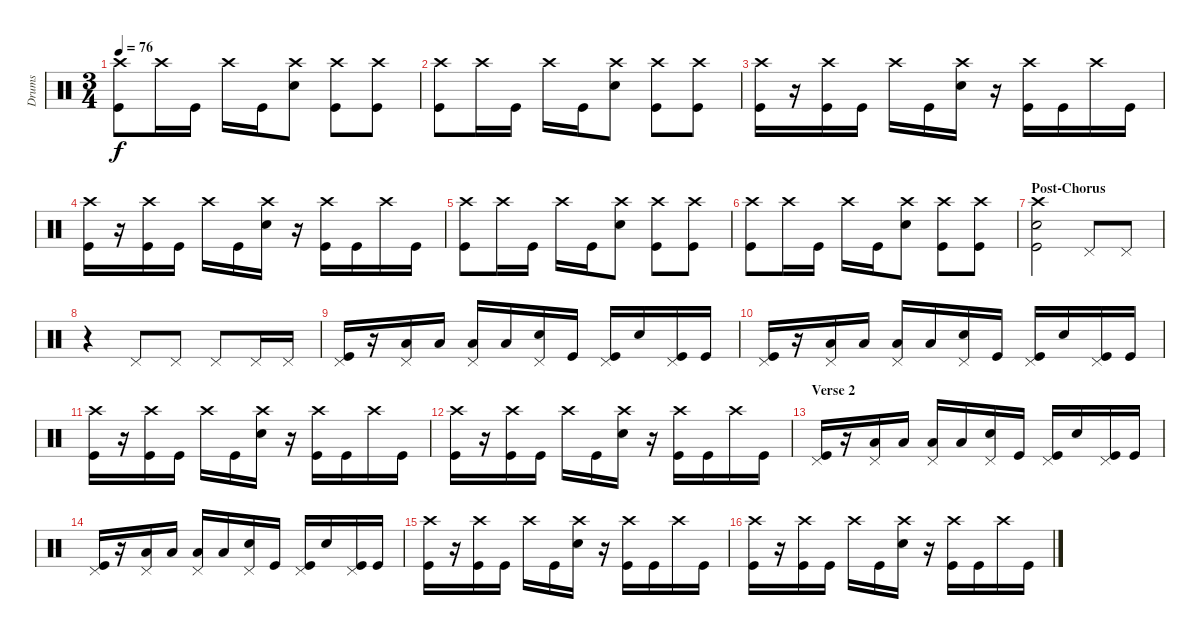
\track ("Drums" "Drums") {instrument percussion}
\staff {score}
\articulation defaults
\ts (3 4)
\tempo 76
\clef neutral
\ks c
("Crash high (hit)" "Kick (hit)").8{dy f} "Crash high (hit)".16 "Kick (hit)".16 "Crash high (hit)".16 "Kick (hit)".16 ("Crash high (hit)" "Snare (hit) 2").8 ("Crash high (hit)" "Kick (hit)").8 ("Crash high (hit)" "Kick (hit)").8 |
("Crash high (hit)" "Kick (hit)").8 "Crash high (hit)".16 "Kick (hit)".16 "Crash high (hit)".16 "Kick (hit)".16 ("Crash high (hit)" "Snare (hit) 2").8 ("Crash high (hit)" "Kick (hit)").8 ("Crash high (hit)" "Kick (hit)").8 |
("Crash high (hit)" "Kick (hit)").16 r.16 ("Crash high (hit)" "Kick (hit)").16 "Kick (hit)".16 "Crash high (hit)".16 "Kick (hit)".16 ("Crash high (hit)" "Snare (hit) 2").16 r.16 ("Crash high (hit)" "Kick (hit)").16 "Kick (hit)".16 "Crash high (hit)".16 "Kick (hit)".16 |
("Crash high (hit)" "Kick (hit)").16 r.16 ("Crash high (hit)" "Kick (hit)").16 "Kick (hit)".16 "Crash high (hit)".16 "Kick (hit)".16 ("Crash high (hit)" "Snare (hit) 2").16 r.16 ("Crash high (hit)" "Kick (hit)").16 "Kick (hit)".16 "Crash high (hit)".16 "Kick (hit)".16 |
("Crash high (hit)" "Kick (hit)").8 "Crash high (hit)".16 "Kick (hit)".16 "Crash high (hit)".16 "Kick (hit)".16 ("Crash high (hit)" "Snare (hit) 2").8 ("Crash high (hit)" "Kick (hit)").8 ("Crash high (hit)" "Kick (hit)").8 |
("Crash high (hit)" "Kick (hit)").8 "Crash high (hit)".16 "Kick (hit)".16 "Crash high (hit)".16 "Kick (hit)".16 ("Crash high (hit)" "Snare (hit) 2").8 ("Crash high (hit)" "Kick (hit)").8 ("Crash high (hit)" "Kick (hit)").8 |
\section ("" "Post-Chorus")
("Crash high (hit)" "Snare (hit) 2" "Kick (hit)").2 "Pedal Hi-Hat (hit)".8 "Pedal Hi-Hat (hit)".8 |
r.4 "Pedal Hi-Hat (hit)".8 "Pedal Hi-Hat (hit)".8 "Pedal Hi-Hat (hit)".8 "Pedal Hi-Hat (hit)".16 "Pedal Hi-Hat (hit)".16 |
("Pedal Hi-Hat (hit)" "Kick (hit)").16 r.16 ("Pedal Hi-Hat (hit)" "Low Tom (hit)").16 "Low Tom (hit)".16 ("Pedal Hi-Hat (hit)" "Low Tom (hit)").16 "Low Tom (hit)".16 ("Pedal Hi-Hat (hit)" "Snare (hit) 2").16 "Kick (hit)".16 ("Pedal Hi-Hat (hit)" "Kick (hit)").16 "Snare (hit) 2".16 ("Pedal Hi-Hat (hit)" "Kick (hit)").16 "Kick (hit)".16 |
("Pedal Hi-Hat (hit)" "Kick (hit)").16 r.16 ("Pedal Hi-Hat (hit)" "Low Tom (hit)").16 "Low Tom (hit)".16 ("Pedal Hi-Hat (hit)" "Low Tom (hit)").16 "Low Tom (hit)".16 ("Pedal Hi-Hat (hit)" "Snare (hit) 2").16 "Kick (hit)".16 ("Pedal Hi-Hat (hit)" "Kick (hit)").16 "Snare (hit) 2".16 ("Pedal Hi-Hat (hit)" "Kick (hit)").16 "Kick (hit)".16 |
("Crash high (hit)" "Kick (hit)").16 r.16 ("Crash high (hit)" "Kick (hit)").16 "Kick (hit)".16 "Crash high (hit)".16 "Kick (hit)".16 ("Crash high (hit)" "Snare (hit) 2").16 r.16 ("Crash high (hit)" "Kick (hit)").16 "Kick (hit)".16 "Crash high (hit)".16 "Kick (hit)".16 |
("Crash high (hit)" "Kick (hit)").16 r.16 ("Crash high (hit)" "Kick (hit)").16 "Kick (hit)".16 "Crash high (hit)".16 "Kick (hit)".16 ("Crash high (hit)" "Snare (hit) 2").16 r.16 ("Crash high (hit)" "Kick (hit)").16 "Kick (hit)".16 "Crash high (hit)".16 "Kick (hit)".16 |
\section ("" "Verse 2")
("Pedal Hi-Hat (hit)" "Kick (hit)").16 r.16 ("Pedal Hi-Hat (hit)" "Low Tom (hit)").16 "Low Tom (hit)".16 ("Pedal Hi-Hat (hit)" "Low Tom (hit)").16 "Low Tom (hit)".16 ("Pedal Hi-Hat (hit)" "Snare (hit) 2").16 "Kick (hit)".16 ("Pedal Hi-Hat (hit)" "Kick (hit)").16 "Snare (hit) 2".16 ("Pedal Hi-Hat (hit)" "Kick (hit)").16 "Kick (hit)".16 |
("Pedal Hi-Hat (hit)" "Kick (hit)").16 r.16 ("Pedal Hi-Hat (hit)" "Low Tom (hit)").16 "Low Tom (hit)".16 ("Pedal Hi-Hat (hit)" "Low Tom (hit)").16 "Low Tom (hit)".16 ("Pedal Hi-Hat (hit)" "Snare (hit) 2").16 "Kick (hit)".16 ("Pedal Hi-Hat (hit)" "Kick (hit)").16 "Snare (hit) 2".16 ("Pedal Hi-Hat (hit)" "Kick (hit)").16 "Kick (hit)".16 |
("Crash high (hit)" "Kick (hit)").16 r.16 ("Crash high (hit)" "Kick (hit)").16 "Kick (hit)".16 "Crash high (hit)".16 "Kick (hit)".16 ("Crash high (hit)" "Snare (hit) 2").16 r.16 ("Crash high (hit)" "Kick (hit)").16 "Kick (hit)".16 "Crash high (hit)".16 "Kick (hit)".16 |
("Crash high (hit)" "Kick (hit)").16 r.16 ("Crash high (hit)" "Kick (hit)").16 "Kick (hit)".16 "Crash high (hit)".16 "Kick (hit)".16 ("Crash high (hit)" "Snare (hit) 2").16 r.16 ("Crash high (hit)" "Kick (hit)").16 "Kick (hit)".16 "Crash high (hit)".16 "Kick (hit)".16
